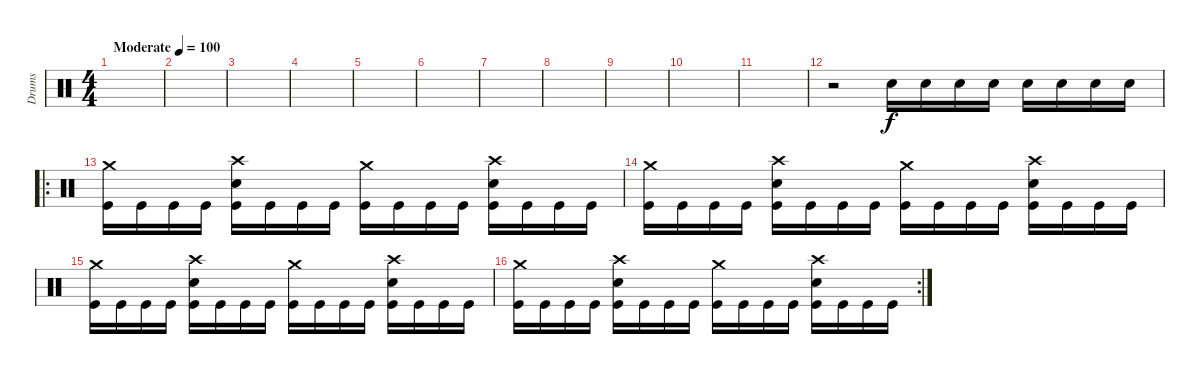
\track ("Drums" "Drums") {instrument percussion}
\staff {score}
\articulation defaults
\ts (4 4)
\tempo (100 "Moderate")
\clef neutral
\ks c
|
|
|
|
|
|
|
|
|
|
|
r.2{volume 0} "Snare (hit) 2".16{volume 13} "Snare (hit) 2".16 "Snare (hit) 2".16 "Snare (hit) 2".16 "Snare (hit) 2".16 "Snare (hit) 2".16 "Snare (hit) 2".16 "Snare (hit) 2".16 |
\ro
("Crash medium (hit)" "Kick (hit)").16 "Kick (hit)".16 "Kick (hit)".16 "Kick (hit)".16 ("Crash high (hit)" "Snare (hit) 2" "Kick (hit)").16 "Kick (hit)".16 "Kick (hit)".16 "Kick (hit)".16 ("Crash medium (hit)" "Kick (hit)").16 "Kick (hit)".16 "Kick (hit)".16 "Kick (hit)".16 ("Crash high (hit)" "Snare (hit) 2" "Kick (hit)").16 "Kick (hit)".16 "Kick (hit)".16 "Kick (hit)".16 |
("Crash medium (hit)" "Kick (hit)").16 "Kick (hit)".16 "Kick (hit)".16 "Kick (hit)".16 ("Crash high (hit)" "Snare (hit) 2" "Kick (hit)").16 "Kick (hit)".16 "Kick (hit)".16 "Kick (hit)".16 ("Crash medium (hit)" "Kick (hit)").16 "Kick (hit)".16 "Kick (hit)".16 "Kick (hit)".16 ("Crash high (hit)" "Snare (hit) 2" "Kick (hit)").16 "Kick (hit)".16 "Kick (hit)".16 "Kick (hit)".16 |
("Crash medium (hit)" "Kick (hit)").16 "Kick (hit)".16 "Kick (hit)".16 "Kick (hit)".16 ("Crash high (hit)" "Snare (hit) 2" "Kick (hit)").16 "Kick (hit)".16 "Kick (hit)".16 "Kick (hit)".16 ("Crash medium (hit)" "Kick (hit)").16 "Kick (hit)".16 "Kick (hit)".16 "Kick (hit)".16 ("Crash high (hit)" "Snare (hit) 2" "Kick (hit)").16 "Kick (hit)".16 "Kick (hit)".16 "Kick (hit)".16 |
\rc 2
("Crash medium (hit)" "Kick (hit)").16 "Kick (hit)".16 "Kick (hit)".16 "Kick (hit)".16 ("Crash high (hit)" "Snare (hit) 2" "Kick (hit)").16 "Kick (hit)".16 "Kick (hit)".16 "Kick (hit)".16 ("Crash medium (hit)" "Kick (hit)").16 "Kick (hit)".16 "Kick (hit)".16 "Kick (hit)".16 ("Crash high (hit)" "Snare (hit) 2" "Kick (hit)").16 "Kick (hit)".16 "Kick (hit)".16 "Kick (hit)".16
